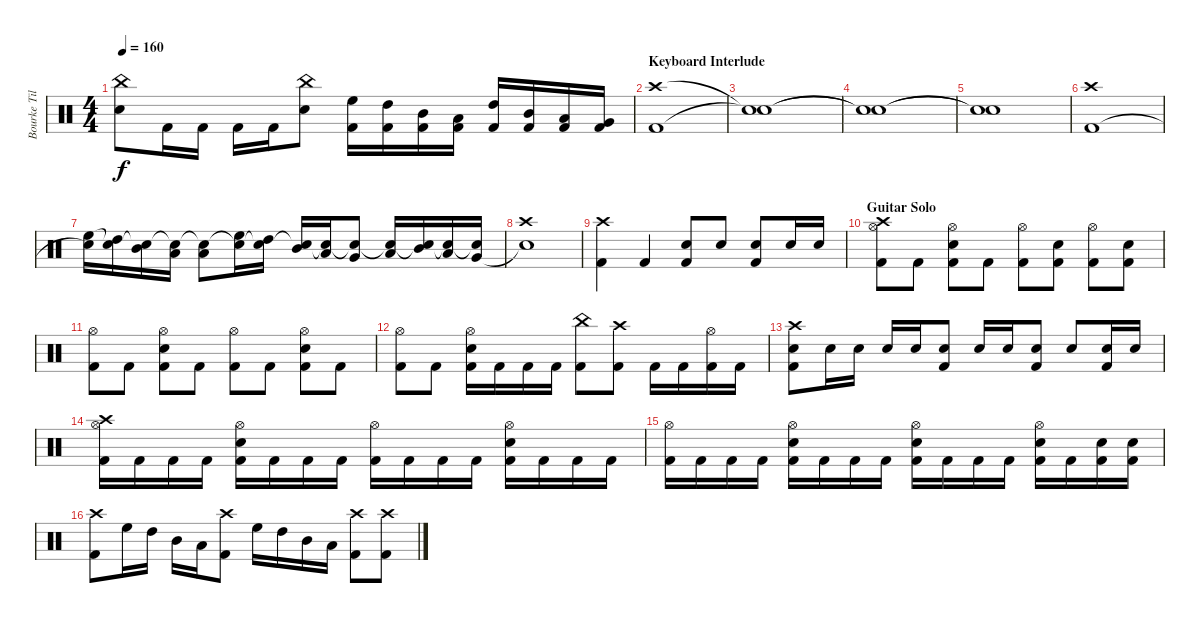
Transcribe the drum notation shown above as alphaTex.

\track ("Bourke Tillman" "Bourke Til") {instrument percussion}
\staff {score}
\articulation defaults
\ts (4 4)
\tempo 160
\clef neutral
\ks c
("China (hit)" "Electric Snare (hit)").8{dy f} "Kick (hit) 2".16 "Kick (hit) 2".16 "Kick (hit) 2".16 "Kick (hit) 2".16 ("China (hit)" "Electric Snare (hit)").8 ("High Floor Tom (hit)" "Kick (hit) 2").16 ("High Tom (hit)" "Kick (hit) 2").16 ("Mid Tom (hit)" "Kick (hit) 2").16 ("Low Tom (hit)" "Kick (hit) 2").16 ("High Tom (hit)" "Kick (hit) 2").16 ("Mid Tom (hit)" "Kick (hit) 2").16 ("Low Tom (hit)" "Kick (hit) 2").16 ("Very Low Tom (hit)" "Kick (hit) 2").16 |
\section ("" "Keyboard Interlude")
("Crash high (hit)" "Kick (hit) 2").1 |
("Snare (hit)"{t} "Snare (hit)"{t}).1 |
("Snare (hit)"{t} "Snare (hit)"{t}).1 |
("Snare (hit)"{t} "Snare (hit)"{t}).1 |
("Crash high (hit)" "Kick (hit) 2").1 |
("High Floor Tom (hit)" "Snare (hit)"{t}).16 ("Snare (hit)"{t} "High Tom (hit)").16 ("Snare (hit)"{t} "Mid Tom (hit)").16 ("Snare (hit)"{t} "Low Tom (hit)").16 ("Snare (hit)"{t} "Low Floor Tom (hit)").8 ("Snare (hit)"{t} "High Floor Tom (hit)").16 ("Snare (hit)"{t} "High Tom (hit)").16 ("Snare (hit)"{t} "Mid Tom (hit)").16 ("Snare (hit)"{t} "Low Tom (hit)").16 ("Snare (hit)"{t} "Very Low Tom (hit)").8 ("Snare (hit)"{t} "Low Floor Tom (hit)").16 ("Snare (hit)"{t} "Mid Tom (hit)").16 ("Snare (hit)"{t} "Low Tom (hit)").16 ("Snare (hit)"{t} "Very Low Tom (hit)").16 |
("Crash high (hit)" "Snare (hit)"{t}).1 |
("Crash high (hit)" "Kick (hit) 2").4 "Kick (hit) 2".4 ("Electric Snare (hit)" "Kick (hit) 2").8 "Electric Snare (hit)".8 ("Electric Snare (hit)" "Kick (hit) 2").8 "Electric Snare (hit)".16 "Electric Snare (hit)".16 |
\section ("" "Guitar Solo")
("Crash high (hit)" "Hi-Hat (open)" "Kick (hit) 2").8 "Kick (hit) 2".8 ("Hi-Hat (open)" "Electric Snare (hit)" "Kick (hit) 2").8 "Kick (hit) 2".8 ("Hi-Hat (open)" "Kick (hit) 2").8 ("Electric Snare (hit)" "Kick (hit) 2").8 ("Hi-Hat (open)" "Kick (hit) 2").8 ("Electric Snare (hit)" "Kick (hit) 2").8 |
("Hi-Hat (open)" "Kick (hit) 2").8 "Kick (hit) 2".8 ("Hi-Hat (open)" "Electric Snare (hit)" "Kick (hit) 2").8 "Kick (hit) 2".8 ("Hi-Hat (open)" "Kick (hit) 2").8 "Kick (hit) 2".8 ("Hi-Hat (open)" "Electric Snare (hit)" "Kick (hit) 2").8 "Kick (hit) 2".8 |
("Hi-Hat (open)" "Kick (hit) 2").8 "Kick (hit) 2".8 ("Hi-Hat (open)" "Electric Snare (hit)" "Kick (hit) 2").16 "Kick (hit) 2".16 "Kick (hit) 2".16 "Kick (hit) 2".16 ("China (hit)" "Kick (hit) 2").8 ("Crash high (hit)" "Kick (hit) 2").8 "Kick (hit) 2".16 "Kick (hit) 2".16 ("Hi-Hat (open)" "Kick (hit) 2").16 "Kick (hit) 2".16 |
("Crash high (hit)" "Electric Snare (hit)" "Kick (hit) 2").8 "Electric Snare (hit)".16 "Electric Snare (hit)".16 "Electric Snare (hit)".16 "Electric Snare (hit)".16 ("Electric Snare (hit)" "Kick (hit) 2").8 "Electric Snare (hit)".16 "Electric Snare (hit)".16 ("Electric Snare (hit)" "Kick (hit) 2").8 "Electric Snare (hit)".8 ("Electric Snare (hit)" "Kick (hit) 2").16 "Electric Snare (hit)".16 |
("Crash high (hit)" "Hi-Hat (open)" "Kick (hit) 2").16 "Kick (hit) 2".16 "Kick (hit) 2".16 "Kick (hit) 2".16 ("Hi-Hat (open)" "Electric Snare (hit)" "Kick (hit) 2").16 "Kick (hit) 2".16 "Kick (hit) 2".16 "Kick (hit) 2".16 ("Hi-Hat (open)" "Kick (hit) 2").16 "Kick (hit) 2".16 "Kick (hit) 2".16 "Kick (hit) 2".16 ("Hi-Hat (open)" "Electric Snare (hit)" "Kick (hit) 2").16 "Kick (hit) 2".16 "Kick (hit) 2".16 "Kick (hit) 2".16 |
("Hi-Hat (open)" "Kick (hit) 2").16 "Kick (hit) 2".16 "Kick (hit) 2".16 "Kick (hit) 2".16 ("Hi-Hat (open)" "Electric Snare (hit)" "Kick (hit) 2").16 "Kick (hit) 2".16 "Kick (hit) 2".16 "Kick (hit) 2".16 ("Hi-Hat (open)" "Electric Snare (hit)" "Kick (hit) 2").16 "Kick (hit) 2".16 "Kick (hit) 2".16 "Kick (hit) 2".16 ("Hi-Hat (open)" "Electric Snare (hit)" "Kick (hit) 2").16 "Kick (hit) 2".16 ("Electric Snare (hit)" "Kick (hit) 2").16 ("Electric Snare (hit)" "Kick (hit) 2").16 |
("Crash high (hit)" "Kick (hit) 2").8 "High Floor Tom (hit)".16 "High Tom (hit)".16 "Mid Tom (hit)".16 "Low Tom (hit)".16 ("Crash high (hit)" "Kick (hit) 2").8 "High Floor Tom (hit)".16 "High Tom (hit)".16 "Mid Tom (hit)".16 "Low Tom (hit)".16 ("Crash high (hit)" "Kick (hit) 2").8 ("Crash high (hit)" "Kick (hit) 2").8
